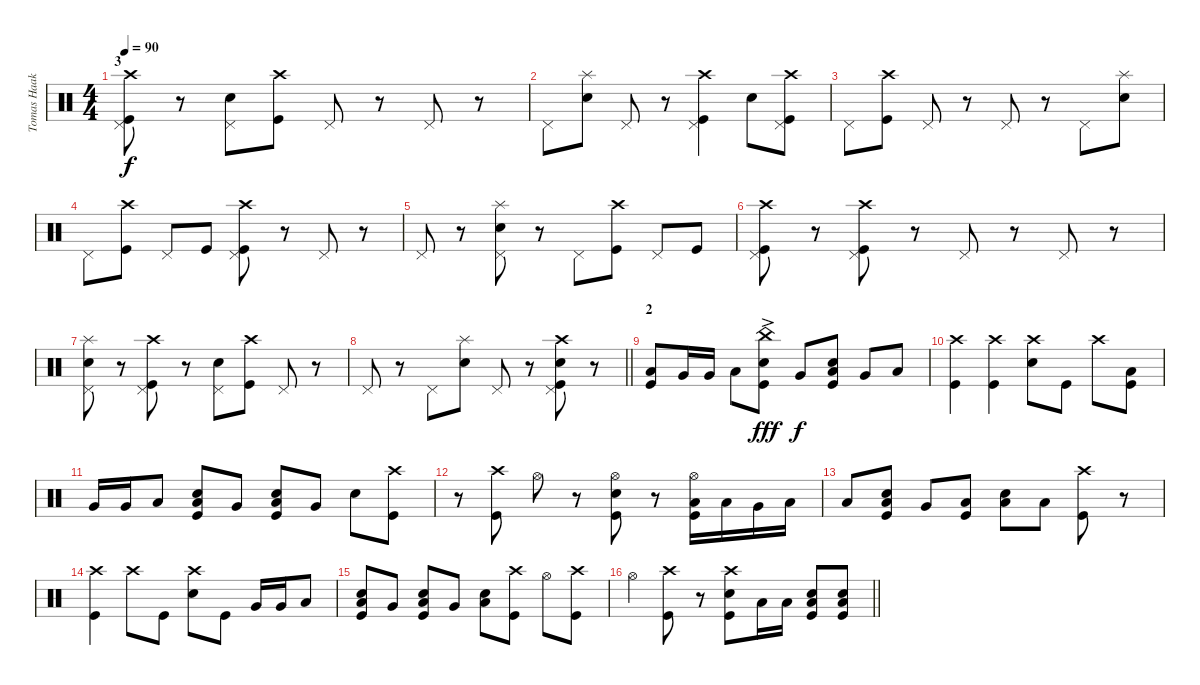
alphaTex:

\track ("Tomas Haake" "Tomas Haak") {instrument percussion}
\staff {score}
\articulation defaults
\ts (4 4)
\section ("" "3")
\tempo 90
\clef neutral
\ks c
("Crash high (hit)" "Pedal Hi-Hat (hit)" "Kick (hit)").8{dy f} r.8 ("Pedal Hi-Hat (hit)" "Electric Snare (hit)").8 ("Crash high (hit)" "Kick (hit)").8 "Pedal Hi-Hat (hit)".8 r.8 "Pedal Hi-Hat (hit)".8 r.8 |
"Pedal Hi-Hat (hit)".8 ("Splash (hit)" "Electric Snare (hit)").8 "Pedal Hi-Hat (hit)".8 r.8 ("Crash high (hit)" "Pedal Hi-Hat (hit)" "Kick (hit)").4 "Electric Snare (hit)".8 ("Crash high (hit)" "Pedal Hi-Hat (hit)" "Kick (hit)").8 |
"Pedal Hi-Hat (hit)".8 ("Crash high (hit)" "Kick (hit)").8 "Pedal Hi-Hat (hit)".8 r.8 "Pedal Hi-Hat (hit)".8 r.8 "Pedal Hi-Hat (hit)".8 ("Splash (hit)" "Electric Snare (hit)").8 |
"Pedal Hi-Hat (hit)".8 ("Crash high (hit)" "Kick (hit)").8 "Pedal Hi-Hat (hit)".8 "Kick (hit)".8 ("Crash high (hit)" "Pedal Hi-Hat (hit)" "Kick (hit)").8 r.8 "Pedal Hi-Hat (hit)".8 r.8 |
"Pedal Hi-Hat (hit)".8 r.8 ("Pedal Hi-Hat (hit)" "Splash (hit)" "Electric Snare (hit)").8 r.8 "Pedal Hi-Hat (hit)".8 ("Crash high (hit)" "Kick (hit)").8 "Pedal Hi-Hat (hit)".8 "Kick (hit)".8 |
("Crash high (hit)" "Pedal Hi-Hat (hit)" "Kick (hit)").8 r.8 ("Crash high (hit)" "Pedal Hi-Hat (hit)" "Kick (hit)").8 r.8 "Pedal Hi-Hat (hit)".8 r.8 "Pedal Hi-Hat (hit)".8 r.8 |
("Pedal Hi-Hat (hit)" "Splash (hit)" "Electric Snare (hit)").8 r.8 ("Crash high (hit)" "Pedal Hi-Hat (hit)" "Kick (hit)").8 r.8 ("Pedal Hi-Hat (hit)" "Electric Snare (hit)").8 ("Crash high (hit)" "Kick (hit)").8 "Pedal Hi-Hat (hit)".8 r.8 |
\barLineRight lightlight "Pedal Hi-Hat (hit)".8
r.8 "Pedal Hi-Hat (hit)".8 ("Splash (hit)" "Electric Snare (hit)").8 "Pedal Hi-Hat (hit)".8 r.8 ("Crash high (hit)" "Pedal Hi-Hat (hit)" "Electric Snare (hit)" "Kick (hit)").8 r.8 |
\section ("" "2")
("Low Tom (hit)" "Kick (hit)").8 "Very Low Tom (hit)".16 "Very Low Tom (hit)".16 "Low Floor Tom (hit)".8 ("China (hit)"{ac} "Electric Snare (hit)" "Kick (hit)").8{dy fff} "Very Low Tom (hit)".8{dy f} ("Electric Snare (hit)" "Low Tom (hit)" "Kick (hit)").8 "Very Low Tom (hit)".8 "Low Floor Tom (hit)".8 |
("Crash high (hit)" "Kick (hit)").4 ("Crash high (hit)" "Kick (hit)").4 ("Crash high (hit)" "Electric Snare (hit)").8 "Kick (hit)".8 "Crash high (hit)".8 ("Low Tom (hit)" "Kick (hit)").8 |
"Very Low Tom (hit)".16 "Very Low Tom (hit)".16 "Low Floor Tom (hit)".8 ("Electric Snare (hit)" "Low Tom (hit)" "Kick (hit)").8 "Very Low Tom (hit)".8 ("Electric Snare (hit)" "Low Tom (hit)" "Kick (hit)").8 "Very Low Tom (hit)".8 "Electric Snare (hit)".8 ("Crash high (hit)" "Kick (hit)").8 |
r.8 ("Crash high (hit)" "Kick (hit)").8 "Hi-Hat (open)".8 r.8 ("Hi-Hat (open)" "Electric Snare (hit)" "Kick (hit)").8 r.8 ("Hi-Hat (open)" "Low Tom (hit)" "Kick (hit)").16 "Low Tom (hit)".16 "Very Low Tom (hit)".16 "Low Floor Tom (hit)".16 |
"Low Floor Tom (hit)".8 ("Electric Snare (hit)" "Low Tom (hit)" "Kick (hit)").8 "Very Low Tom (hit)".8 ("Low Floor Tom (hit)" "Kick (hit)").8 ("Electric Snare (hit)" "Low Floor Tom (hit)").8 "Low Floor Tom (hit)".8 ("Crash high (hit)" "Kick (hit)").8 r.8 |
("Crash high (hit)" "Kick (hit)").4 "Crash high (hit)".8 "Kick (hit)".8 ("Crash high (hit)" "Electric Snare (hit)").8 "Kick (hit)".8 "Very Low Tom (hit)".16 "Very Low Tom (hit)".16 "Low Floor Tom (hit)".8 |
("Electric Snare (hit)" "Low Tom (hit)" "Kick (hit)").8 "Very Low Tom (hit)".8 ("Electric Snare (hit)" "Low Tom (hit)" "Kick (hit)").8 "Very Low Tom (hit)".8 ("Electric Snare (hit)" "Low Floor Tom (hit)").8 ("Crash high (hit)" "Kick (hit)").8 "Hi-Hat (open)".8 ("Crash high (hit)" "Kick (hit)").8 |
\barLineRight lightlight "Hi-Hat (open)".4
("Crash high (hit)" "Kick (hit)").8 r.8 ("Crash high (hit)" "Electric Snare (hit)" "Kick (hit)").8 "Low Floor Tom (hit)".16 "Low Floor Tom (hit)".16 ("Electric Snare (hit)" "Low Floor Tom (hit)" "Kick (hit)").8 ("Electric Snare (hit)" "Low Floor Tom (hit)" "Kick (hit)").8
